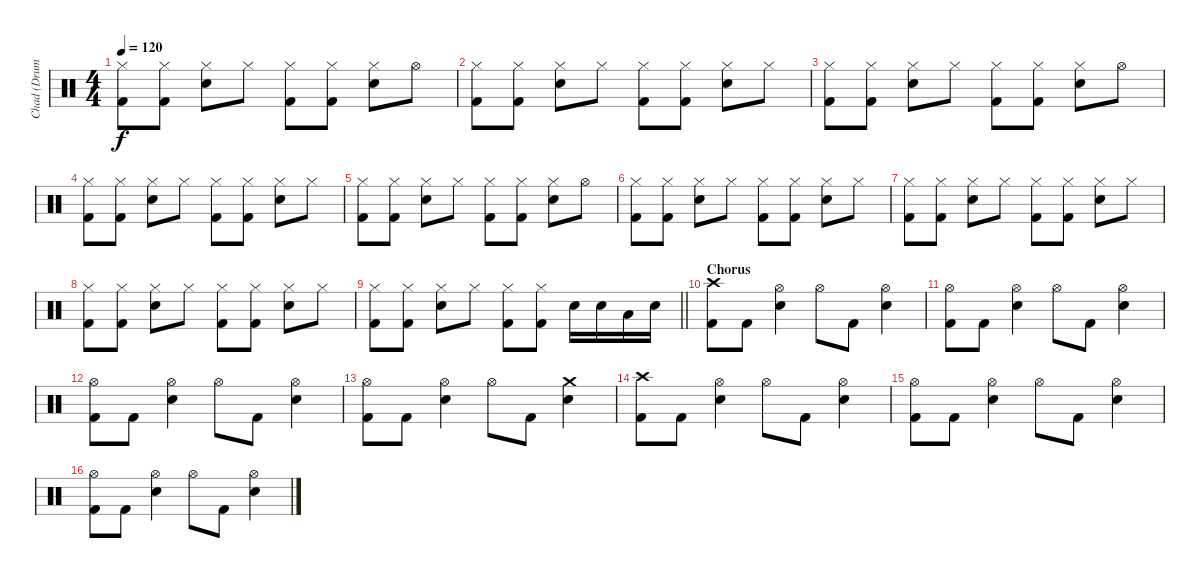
\track ("Chad (Drums)" "Chad (Drum") {instrument percussion}
\staff {score}
\articulation defaults
\ts (4 4)
\tempo 120
\clef neutral
\ks c
("Hi-Hat (closed)" "Kick (hit) 2").8{dy f} ("Hi-Hat (closed)" "Kick (hit) 2").8 ("Hi-Hat (closed)" "Electric Snare (hit)").8 "Hi-Hat (closed)".8 ("Hi-Hat (closed)" "Kick (hit) 2").8 ("Hi-Hat (closed)" "Kick (hit) 2").8 ("Hi-Hat (closed)" "Electric Snare (hit)").8 "Hi-Hat (open)".8 |
("Hi-Hat (closed)" "Kick (hit) 2").8 ("Hi-Hat (closed)" "Kick (hit) 2").8 ("Hi-Hat (closed)" "Electric Snare (hit)").8 "Hi-Hat (closed)".8 ("Hi-Hat (closed)" "Kick (hit) 2").8 ("Hi-Hat (closed)" "Kick (hit) 2").8 ("Hi-Hat (closed)" "Electric Snare (hit)").8 "Hi-Hat (closed)".8 |
("Hi-Hat (closed)" "Kick (hit) 2").8 ("Hi-Hat (closed)" "Kick (hit) 2").8 ("Hi-Hat (closed)" "Electric Snare (hit)").8 "Hi-Hat (closed)".8 ("Hi-Hat (closed)" "Kick (hit) 2").8 ("Hi-Hat (closed)" "Kick (hit) 2").8 ("Hi-Hat (closed)" "Electric Snare (hit)").8 "Hi-Hat (open)".8 |
("Hi-Hat (closed)" "Kick (hit) 2").8 ("Hi-Hat (closed)" "Kick (hit) 2").8 ("Hi-Hat (closed)" "Electric Snare (hit)").8 "Hi-Hat (closed)".8 ("Hi-Hat (closed)" "Kick (hit) 2").8 ("Hi-Hat (closed)" "Kick (hit) 2").8 ("Hi-Hat (closed)" "Electric Snare (hit)").8 "Hi-Hat (closed)".8 |
("Hi-Hat (closed)" "Kick (hit) 2").8 ("Hi-Hat (closed)" "Kick (hit) 2").8 ("Hi-Hat (closed)" "Electric Snare (hit)").8 "Hi-Hat (closed)".8 ("Hi-Hat (closed)" "Kick (hit) 2").8 ("Hi-Hat (closed)" "Kick (hit) 2").8 ("Hi-Hat (closed)" "Electric Snare (hit)").8 "Hi-Hat (open)".8 |
("Hi-Hat (closed)" "Kick (hit) 2").8 ("Hi-Hat (closed)" "Kick (hit) 2").8 ("Hi-Hat (closed)" "Electric Snare (hit)").8 "Hi-Hat (closed)".8 ("Hi-Hat (closed)" "Kick (hit) 2").8 ("Hi-Hat (closed)" "Kick (hit) 2").8 ("Hi-Hat (closed)" "Electric Snare (hit)").8 "Hi-Hat (closed)".8 |
("Hi-Hat (closed)" "Kick (hit) 2").8 ("Hi-Hat (closed)" "Kick (hit) 2").8 ("Hi-Hat (closed)" "Electric Snare (hit)").8 "Hi-Hat (closed)".8 ("Hi-Hat (closed)" "Kick (hit) 2").8 ("Hi-Hat (closed)" "Kick (hit) 2").8 ("Hi-Hat (closed)" "Electric Snare (hit)").8 "Hi-Hat (closed)".8 |
("Hi-Hat (closed)" "Kick (hit) 2").8 ("Hi-Hat (closed)" "Kick (hit) 2").8 ("Hi-Hat (closed)" "Electric Snare (hit)").8 "Hi-Hat (closed)".8 ("Hi-Hat (closed)" "Kick (hit) 2").8 ("Hi-Hat (closed)" "Kick (hit) 2").8 ("Hi-Hat (closed)" "Electric Snare (hit)").8 "Hi-Hat (closed)".8 |
\barLineRight lightlight
("Hi-Hat (closed)" "Kick (hit) 2").8 ("Hi-Hat (closed)" "Kick (hit) 2").8 ("Hi-Hat (closed)" "Electric Snare (hit)").8 "Hi-Hat (closed)".8 ("Hi-Hat (closed)" "Kick (hit) 2").8 ("Hi-Hat (closed)" "Kick (hit) 2").8 "Electric Snare (hit)".16 "Electric Snare (hit)".16 "Low Floor Tom (hit)".16 "Electric Snare (hit)".16 |
\section ("" "Chorus")
("Crash high (hit)" "Kick (hit) 2").8 "Kick (hit) 2".8 ("Hi-Hat (open)" "Electric Snare (hit)").4 "Hi-Hat (open)".8 "Kick (hit) 2".8 ("Hi-Hat (open)" "Electric Snare (hit)").4 |
("Hi-Hat (open)" "Kick (hit) 2").8 "Kick (hit) 2".8 ("Hi-Hat (open)" "Electric Snare (hit)").4 "Hi-Hat (open)".8 "Kick (hit) 2".8 ("Hi-Hat (open)" "Electric Snare (hit)").4 |
("Hi-Hat (open)" "Kick (hit) 2").8 "Kick (hit) 2".8 ("Hi-Hat (open)" "Electric Snare (hit)").4 "Hi-Hat (open)".8 "Kick (hit) 2".8 ("Hi-Hat (open)" "Electric Snare (hit)").4 |
("Hi-Hat (open)" "Kick (hit) 2").8 "Kick (hit) 2".8 ("Hi-Hat (open)" "Electric Snare (hit)").4 "Hi-Hat (open)".8 "Kick (hit) 2".8 ("Crash medium (hit)" "Electric Snare (hit)").4 |
("Crash high (hit)" "Kick (hit) 2").8 "Kick (hit) 2".8 ("Hi-Hat (open)" "Electric Snare (hit)").4 "Hi-Hat (open)".8 "Kick (hit) 2".8 ("Hi-Hat (open)" "Electric Snare (hit)").4 |
("Hi-Hat (open)" "Kick (hit) 2").8 "Kick (hit) 2".8 ("Hi-Hat (open)" "Electric Snare (hit)").4 "Hi-Hat (open)".8 "Kick (hit) 2".8 ("Hi-Hat (open)" "Electric Snare (hit)").4 |
("Hi-Hat (open)" "Kick (hit) 2").8 "Kick (hit) 2".8 ("Hi-Hat (open)" "Electric Snare (hit)").4 "Hi-Hat (open)".8 "Kick (hit) 2".8 ("Hi-Hat (open)" "Electric Snare (hit)").4
